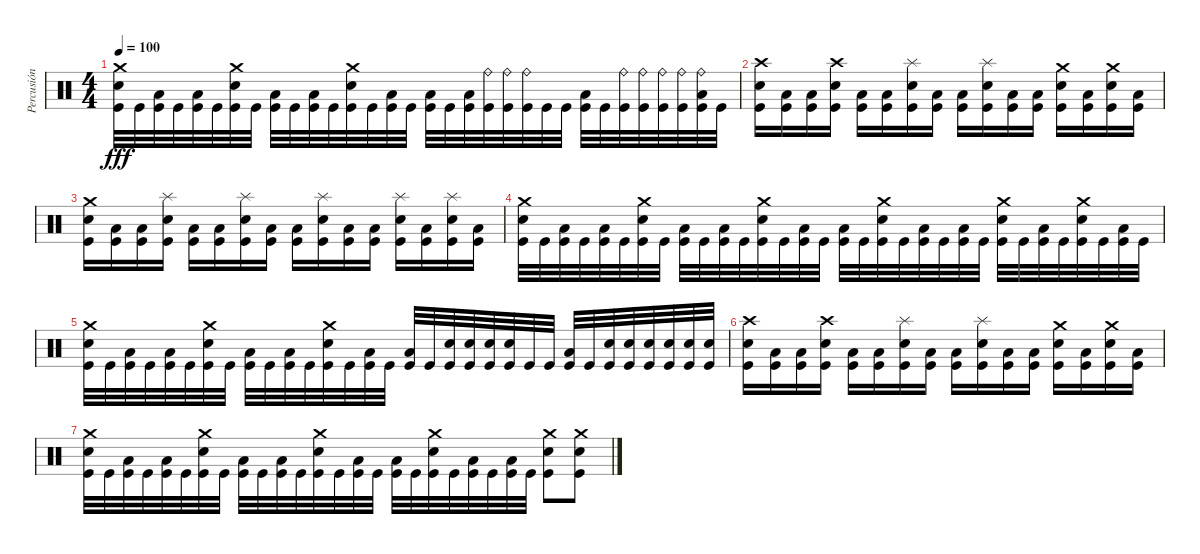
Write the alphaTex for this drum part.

\track ("Percusión" "Percusión") {instrument percussion}
\staff {score}
\articulation defaults
\ts (4 4)
\tempo 100
\clef neutral
\ks c
("Crash medium (hit)" "Snare (hit) 2" "Kick (hit)").32{dy fff} "Kick (hit)".32 ("Low Floor Tom (hit)" "Kick (hit)").32 "Kick (hit)".32 ("Low Floor Tom (hit)" "Kick (hit)").32 "Kick (hit)".32 ("Crash medium (hit)" "Snare (hit) 2" "Kick (hit)").32 "Kick (hit)".32 ("Low Floor Tom (hit)" "Kick (hit)").32 "Kick (hit)".32 ("Low Floor Tom (hit)" "Kick (hit)").32 "Kick (hit)".32 ("Crash medium (hit)" "Snare (hit) 2" "Kick (hit)").32 "Kick (hit)".32 ("Low Floor Tom (hit)" "Kick (hit)").32 "Kick (hit)".32 ("Low Floor Tom (hit)" "Kick (hit)").32 "Kick (hit)".32 ("Low Floor Tom (hit)" "Kick (hit)").32 ("Ride (bell)" "Kick (hit)").32 ("Ride (bell)" "Kick (hit)").32 ("Ride (bell)" "Kick (hit)").32 "Kick (hit)".32 "Kick (hit)".32 ("Low Floor Tom (hit)" "Kick (hit)").32 "Kick (hit)".32 ("Ride (bell)" "Kick (hit)").32 ("Ride (bell)" "Kick (hit)").32 ("Ride (bell)" "Kick (hit)").32 ("Ride (bell)" "Kick (hit)").32 ("Ride (bell)" "Low Floor Tom (hit)" "Kick (hit)").32 "Kick (hit)".32 |
("Crash high (hit)" "Snare (hit) 2" "Kick (hit)").16 ("Low Floor Tom (hit)" "Kick (hit)").16 ("Low Floor Tom (hit)" "Kick (hit)").16 ("Crash high (hit)" "Snare (hit) 2" "Kick (hit)").16 ("Low Floor Tom (hit)" "Kick (hit)").16 ("Low Floor Tom (hit)" "Kick (hit)").16 ("Splash (hit)" "Snare (hit) 2" "Kick (hit)").16 ("Low Floor Tom (hit)" "Kick (hit)").16 ("Low Floor Tom (hit)" "Kick (hit)").16 ("Splash (hit)" "Snare (hit) 2" "Kick (hit)").16 ("Low Floor Tom (hit)" "Kick (hit)").16 ("Low Floor Tom (hit)" "Kick (hit)").16 ("Crash medium (hit)" "Snare (hit) 2" "Kick (hit)").16 ("Low Floor Tom (hit)" "Kick (hit)").16 ("Crash medium (hit)" "Snare (hit) 2" "Kick (hit)").16 ("Low Floor Tom (hit)" "Kick (hit)").16 |
("Crash medium (hit)" "Snare (hit) 2" "Kick (hit)").16 ("Low Floor Tom (hit)" "Kick (hit)").16 ("Low Floor Tom (hit)" "Kick (hit)").16 ("Splash (hit)" "Snare (hit) 2" "Kick (hit)").16 ("Low Floor Tom (hit)" "Kick (hit)").16 ("Low Floor Tom (hit)" "Kick (hit)").16 ("Splash (hit)" "Snare (hit) 2" "Kick (hit)").16 ("Low Floor Tom (hit)" "Kick (hit)").16 ("Low Floor Tom (hit)" "Kick (hit)").16 ("Splash (hit)" "Snare (hit) 2" "Kick (hit)").16 ("Low Floor Tom (hit)" "Kick (hit)").16 ("Low Floor Tom (hit)" "Kick (hit)").16 ("Splash (hit)" "Snare (hit) 2" "Kick (hit)").16 ("Low Floor Tom (hit)" "Kick (hit)").16 ("Splash (hit)" "Snare (hit) 2" "Kick (hit)").16 ("Low Floor Tom (hit)" "Kick (hit)").16 |
("Crash medium (hit)" "Snare (hit) 2" "Kick (hit)").32 "Kick (hit)".32 ("Low Floor Tom (hit)" "Kick (hit)").32 "Kick (hit)".32 ("Low Floor Tom (hit)" "Kick (hit)").32 "Kick (hit)".32 ("Crash medium (hit)" "Snare (hit) 2" "Kick (hit)").32 "Kick (hit)".32 ("Low Floor Tom (hit)" "Kick (hit)").32 "Kick (hit)".32 ("Low Floor Tom (hit)" "Kick (hit)").32 "Kick (hit)".32 ("Crash medium (hit)" "Snare (hit) 2" "Kick (hit)").32 "Kick (hit)".32 ("Low Floor Tom (hit)" "Kick (hit)").32 "Kick (hit)".32 ("Low Floor Tom (hit)" "Kick (hit)").32 "Kick (hit)".32 ("Crash medium (hit)" "Snare (hit) 2" "Kick (hit)").32 "Kick (hit)".32 ("Low Floor Tom (hit)" "Kick (hit)").32 "Kick (hit)".32 ("Low Floor Tom (hit)" "Kick (hit)").32 "Kick (hit)".32 ("Crash medium (hit)" "Snare (hit) 2" "Kick (hit)").32 "Kick (hit)".32 ("Low Floor Tom (hit)" "Kick (hit)").32 "Kick (hit)".32 ("Crash medium (hit)" "Snare (hit) 2" "Kick (hit)").32 "Kick (hit)".32 ("Low Floor Tom (hit)" "Kick (hit)").32 "Kick (hit)".32 |
("Crash medium (hit)" "Snare (hit) 2" "Kick (hit)").32 "Kick (hit)".32 ("Low Floor Tom (hit)" "Kick (hit)").32 "Kick (hit)".32 ("Low Floor Tom (hit)" "Kick (hit)").32 "Kick (hit)".32 ("Crash medium (hit)" "Snare (hit) 2" "Kick (hit)").32 "Kick (hit)".32 ("Low Floor Tom (hit)" "Kick (hit)").32 "Kick (hit)".32 ("Low Floor Tom (hit)" "Kick (hit)").32 "Kick (hit)".32 ("Crash medium (hit)" "Snare (hit) 2" "Kick (hit)").32 "Kick (hit)".32 ("Low Floor Tom (hit)" "Kick (hit)").32 "Kick (hit)".32 ("Low Floor Tom (hit)" "Kick (hit)").32 "Kick (hit)".32 ("Snare (hit) 2" "Kick (hit)").32 ("Snare (hit) 2" "Kick (hit)").32 ("Snare (hit) 2" "Kick (hit)").32 ("Snare (hit) 2" "Kick (hit)").32 "Kick (hit)".32 "Kick (hit)".32 ("Low Floor Tom (hit)" "Kick (hit)").32 "Kick (hit)".32 ("Snare (hit) 2" "Kick (hit)").32 ("Snare (hit) 2" "Kick (hit)").32 ("Snare (hit) 2" "Kick (hit)").32 ("Snare (hit) 2" "Kick (hit)").32 ("Snare (hit) 2" "Kick (hit)").32 ("Snare (hit) 2" "Kick (hit)").32 |
("Crash high (hit)" "Snare (hit) 2" "Kick (hit)").16 ("Low Floor Tom (hit)" "Kick (hit)").16 ("Low Floor Tom (hit)" "Kick (hit)").16 ("Crash high (hit)" "Snare (hit) 2" "Kick (hit)").16 ("Low Floor Tom (hit)" "Kick (hit)").16 ("Low Floor Tom (hit)" "Kick (hit)").16 ("Splash (hit)" "Snare (hit) 2" "Kick (hit)").16 ("Low Floor Tom (hit)" "Kick (hit)").16 ("Low Floor Tom (hit)" "Kick (hit)").16 ("Splash (hit)" "Snare (hit) 2" "Kick (hit)").16 ("Low Floor Tom (hit)" "Kick (hit)").16 ("Low Floor Tom (hit)" "Kick (hit)").16 ("Crash medium (hit)" "Snare (hit) 2" "Kick (hit)").16 ("Low Floor Tom (hit)" "Kick (hit)").16 ("Crash medium (hit)" "Snare (hit) 2" "Kick (hit)").16 ("Low Floor Tom (hit)" "Kick (hit)").16 |
("Crash medium (hit)" "Snare (hit) 2" "Kick (hit)").32 "Kick (hit)".32 ("Low Floor Tom (hit)" "Kick (hit)").32 "Kick (hit)".32 ("Low Floor Tom (hit)" "Kick (hit)").32 "Kick (hit)".32 ("Crash medium (hit)" "Snare (hit) 2" "Kick (hit)").32 "Kick (hit)".32 ("Low Floor Tom (hit)" "Kick (hit)").32 "Kick (hit)".32 ("Low Floor Tom (hit)" "Kick (hit)").32 "Kick (hit)".32 ("Crash medium (hit)" "Snare (hit) 2" "Kick (hit)").32 "Kick (hit)".32 ("Low Floor Tom (hit)" "Kick (hit)").32 "Kick (hit)".32 ("Low Floor Tom (hit)" "Kick (hit)").32 "Kick (hit)".32 ("Crash medium (hit)" "Snare (hit) 2" "Kick (hit)").32 "Kick (hit)".32 ("Low Floor Tom (hit)" "Kick (hit)").32 "Kick (hit)".32 ("Low Floor Tom (hit)" "Kick (hit)").32 "Kick (hit)".32 ("Crash medium (hit)" "Snare (hit) 2" "Kick (hit)").8 ("Crash medium (hit)" "Snare (hit) 2" "Kick (hit)").8
